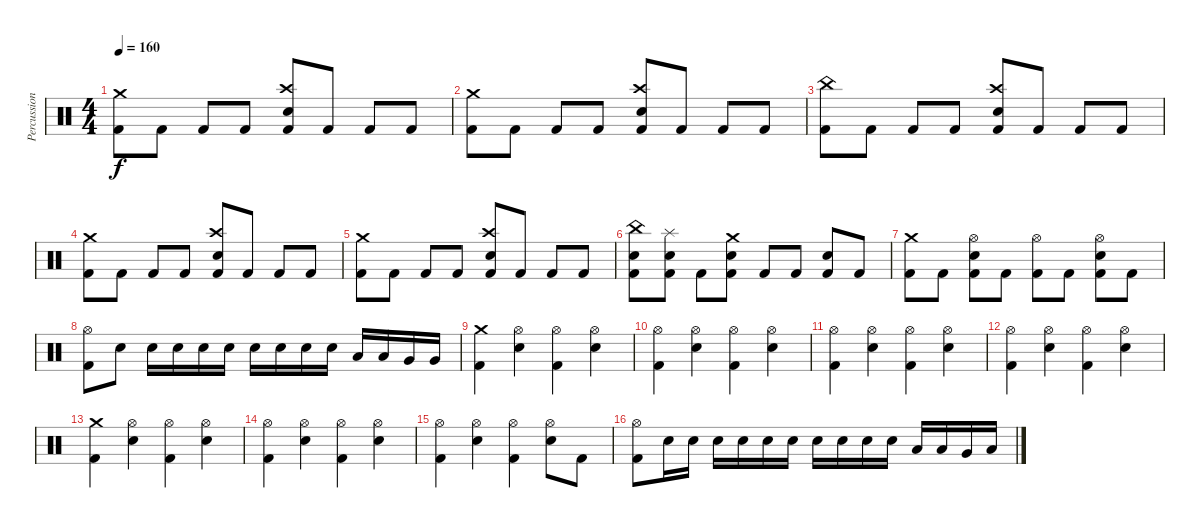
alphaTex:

\track ("Percussion" "Percussion") {instrument percussion}
\staff {score}
\articulation defaults
\ts (4 4)
\tempo 160
\clef neutral
\ks c
("Crash medium (hit)" "Kick (hit) 2").8{dy f} "Kick (hit) 2".8 "Kick (hit) 2".8 "Kick (hit) 2".8 ("Crash high (hit)" "Electric Snare (hit)" "Kick (hit) 2").8 "Kick (hit) 2".8 "Kick (hit) 2".8 "Kick (hit) 2".8 |
("Crash medium (hit)" "Kick (hit) 2").8 "Kick (hit) 2".8 "Kick (hit) 2".8 "Kick (hit) 2".8 ("Crash high (hit)" "Electric Snare (hit)" "Kick (hit) 2").8 "Kick (hit) 2".8 "Kick (hit) 2".8 "Kick (hit) 2".8 |
("China (hit)" "Kick (hit) 2").8 "Kick (hit) 2".8 "Kick (hit) 2".8 "Kick (hit) 2".8 ("Crash high (hit)" "Electric Snare (hit)" "Kick (hit) 2").8 "Kick (hit) 2".8 "Kick (hit) 2".8 "Kick (hit) 2".8 |
("Crash medium (hit)" "Kick (hit) 2").8 "Kick (hit) 2".8 "Kick (hit) 2".8 "Kick (hit) 2".8 ("Crash high (hit)" "Electric Snare (hit)" "Kick (hit) 2").8 "Kick (hit) 2".8 "Kick (hit) 2".8 "Kick (hit) 2".8 |
("Crash medium (hit)" "Kick (hit) 2").8 "Kick (hit) 2".8 "Kick (hit) 2".8 "Kick (hit) 2".8 ("Crash high (hit)" "Electric Snare (hit)" "Kick (hit) 2").8 "Kick (hit) 2".8 "Kick (hit) 2".8 "Kick (hit) 2".8 |
("China (hit)" "Electric Snare (hit)" "Kick (hit) 2").8 ("Splash (hit)" "Electric Snare (hit)" "Kick (hit) 2").8 "Kick (hit) 2".8 ("Crash medium (hit)" "Electric Snare (hit)" "Kick (hit) 2").8 "Kick (hit) 2".8 "Kick (hit) 2".8 ("Electric Snare (hit)" "Kick (hit) 2").8 "Kick (hit) 2".8 |
("Crash medium (hit)" "Kick (hit) 2").8 "Kick (hit) 2".8 ("Hi-Hat (open)" "Electric Snare (hit)" "Kick (hit) 2").8 "Kick (hit) 2".8 ("Hi-Hat (open)" "Kick (hit) 2").8 "Kick (hit) 2".8 ("Hi-Hat (open)" "Electric Snare (hit)" "Kick (hit) 2").8 "Kick (hit) 2".8 |
("Hi-Hat (open)" "Kick (hit) 2").8 "Electric Snare (hit)".8 "Electric Snare (hit)".16 "Electric Snare (hit)".16 "Electric Snare (hit)".16 "Electric Snare (hit)".16 "Electric Snare (hit)".16 "Electric Snare (hit)".16 "Electric Snare (hit)".16 "Electric Snare (hit)".16 "Low Tom (hit)".16 "Low Tom (hit)".16 "Very Low Tom (hit)".16 "Very Low Tom (hit)".16 |
("Crash medium (hit)" "Kick (hit) 2").4 ("Hi-Hat (open)" "Electric Snare (hit)").4 ("Hi-Hat (open)" "Kick (hit) 2").4 ("Hi-Hat (open)" "Electric Snare (hit)").4 |
("Hi-Hat (open)" "Kick (hit) 2").4 ("Hi-Hat (open)" "Electric Snare (hit)").4 ("Hi-Hat (open)" "Kick (hit) 2").4 ("Hi-Hat (open)" "Electric Snare (hit)").4 |
("Hi-Hat (open)" "Kick (hit) 2").4 ("Hi-Hat (open)" "Electric Snare (hit)").4 ("Hi-Hat (open)" "Kick (hit) 2").4 ("Hi-Hat (open)" "Electric Snare (hit)").4 |
("Hi-Hat (open)" "Kick (hit) 2").4 ("Hi-Hat (open)" "Electric Snare (hit)").4 ("Hi-Hat (open)" "Kick (hit) 2").4 ("Hi-Hat (open)" "Electric Snare (hit)").4 |
("Crash medium (hit)" "Kick (hit) 2").4 ("Hi-Hat (open)" "Electric Snare (hit)").4 ("Hi-Hat (open)" "Kick (hit) 2").4 ("Hi-Hat (open)" "Electric Snare (hit)").4 |
("Hi-Hat (open)" "Kick (hit) 2").4 ("Hi-Hat (open)" "Electric Snare (hit)").4 ("Hi-Hat (open)" "Kick (hit) 2").4 ("Hi-Hat (open)" "Electric Snare (hit)").4 |
("Hi-Hat (open)" "Kick (hit) 2").4 ("Hi-Hat (open)" "Electric Snare (hit)").4 ("Hi-Hat (open)" "Kick (hit) 2").4 ("Hi-Hat (open)" "Electric Snare (hit)").8 "Kick (hit) 2".8 |
("Hi-Hat (open)" "Kick (hit) 2").8 "Electric Snare (hit)".16 "Electric Snare (hit)".16 "Electric Snare (hit)".16 "Electric Snare (hit)".16 "Electric Snare (hit)".16 "Electric Snare (hit)".16 "Electric Snare (hit)".16 "Electric Snare (hit)".16 "Electric Snare (hit)".16 "Electric Snare (hit)".16 "Low Tom (hit)".16 "Low Tom (hit)".16 "Very Low Tom (hit)".16 "Low Floor Tom (hit)".16
